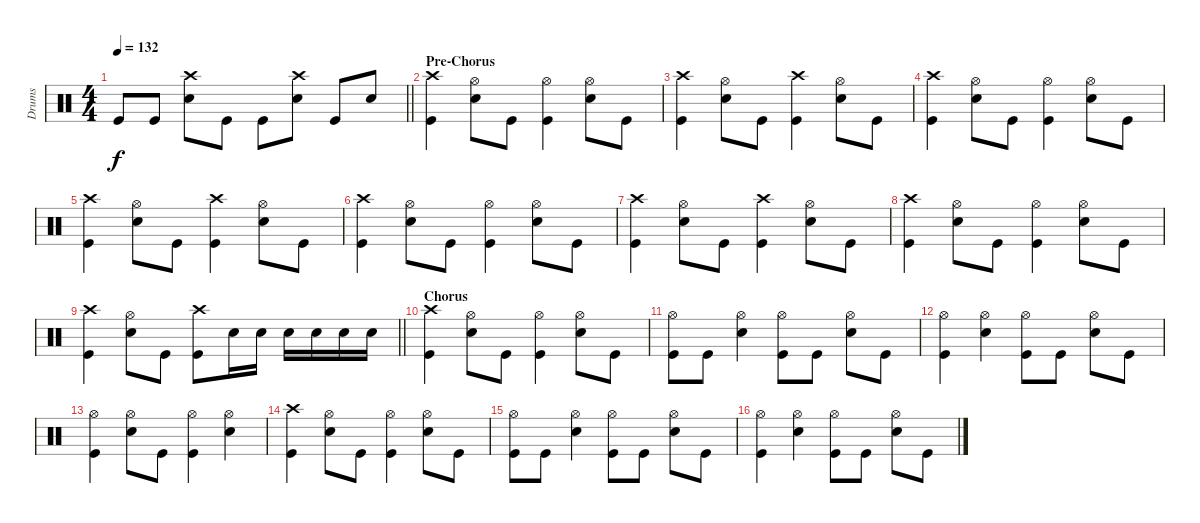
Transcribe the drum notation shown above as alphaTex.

\track ("Drums" "Drums") {instrument percussion}
\staff {score}
\articulation defaults
\ts (4 4)
\tempo 132
\clef neutral
\barLineRight lightlight
\ks c "Kick (hit)".8{dy f} "Kick (hit)".8
("Crash high (hit)" "Electric Snare (hit)").8 "Kick (hit)".8 "Kick (hit)".8 ("Crash high (hit)" "Electric Snare (hit)").8 "Kick (hit)".8 "Electric Snare (hit)".8 |
\section ("" "Pre-Chorus")
("Crash high (hit)" "Kick (hit)").4 ("Hi-Hat (open)" "Electric Snare (hit)").8 "Kick (hit)".8 ("Hi-Hat (open)" "Kick (hit)").4 ("Hi-Hat (open)" "Electric Snare (hit)").8 "Kick (hit)".8 |
("Crash high (hit)" "Kick (hit)").4 ("Hi-Hat (open)" "Electric Snare (hit)").8 "Kick (hit)".8 ("Crash high (hit)" "Kick (hit)").4 ("Hi-Hat (open)" "Electric Snare (hit)").8 "Kick (hit)".8 |
("Crash high (hit)" "Kick (hit)").4 ("Hi-Hat (open)" "Electric Snare (hit)").8 "Kick (hit)".8 ("Hi-Hat (open)" "Kick (hit)").4 ("Hi-Hat (open)" "Electric Snare (hit)").8 "Kick (hit)".8 |
("Crash high (hit)" "Kick (hit)").4 ("Hi-Hat (open)" "Electric Snare (hit)").8 "Kick (hit)".8 ("Crash high (hit)" "Kick (hit)").4 ("Hi-Hat (open)" "Electric Snare (hit)").8 "Kick (hit)".8 |
("Crash high (hit)" "Kick (hit)").4 ("Hi-Hat (open)" "Electric Snare (hit)").8 "Kick (hit)".8 ("Hi-Hat (open)" "Kick (hit)").4 ("Hi-Hat (open)" "Electric Snare (hit)").8 "Kick (hit)".8 |
("Crash high (hit)" "Kick (hit)").4 ("Hi-Hat (open)" "Electric Snare (hit)").8 "Kick (hit)".8 ("Crash high (hit)" "Kick (hit)").4 ("Hi-Hat (open)" "Electric Snare (hit)").8 "Kick (hit)".8 |
("Crash high (hit)" "Kick (hit)").4 ("Hi-Hat (open)" "Electric Snare (hit)").8 "Kick (hit)".8 ("Hi-Hat (open)" "Kick (hit)").4 ("Hi-Hat (open)" "Electric Snare (hit)").8 "Kick (hit)".8 |
\barLineRight lightlight
("Crash high (hit)" "Kick (hit)").4 ("Hi-Hat (open)" "Electric Snare (hit)").8 "Kick (hit)".8 ("Crash high (hit)" "Kick (hit)").8 "Electric Snare (hit)".16 "Electric Snare (hit)".16 "Electric Snare (hit)".16 "Electric Snare (hit)".16 "Electric Snare (hit)".16 "Electric Snare (hit)".16 |
\section ("" "Chorus ")
("Crash high (hit)" "Kick (hit)").4 ("Hi-Hat (open)" "Electric Snare (hit)").8 "Kick (hit)".8 ("Hi-Hat (open)" "Kick (hit)").4 ("Hi-Hat (open)" "Electric Snare (hit)").8 "Kick (hit)".8 |
("Hi-Hat (open)" "Kick (hit)").8 "Kick (hit)".8 ("Hi-Hat (open)" "Electric Snare (hit)").4 ("Hi-Hat (open)" "Kick (hit)").8 "Kick (hit)".8 ("Hi-Hat (open)" "Electric Snare (hit)").8 "Kick (hit)".8 |
("Hi-Hat (open)" "Kick (hit)").4 ("Hi-Hat (open)" "Electric Snare (hit)").4 ("Hi-Hat (open)" "Kick (hit)").8 "Kick (hit)".8 ("Hi-Hat (open)" "Electric Snare (hit)").8 "Kick (hit)".8 |
("Hi-Hat (open)" "Kick (hit)").4 ("Hi-Hat (open)" "Electric Snare (hit)").8 "Kick (hit)".8 ("Hi-Hat (open)" "Kick (hit)").4 ("Hi-Hat (open)" "Electric Snare (hit)").4 |
("Crash high (hit)" "Kick (hit)").4 ("Hi-Hat (open)" "Electric Snare (hit)").8 "Kick (hit)".8 ("Hi-Hat (open)" "Kick (hit)").4 ("Hi-Hat (open)" "Electric Snare (hit)").8 "Kick (hit)".8 |
("Hi-Hat (open)" "Kick (hit)").8 "Kick (hit)".8 ("Hi-Hat (open)" "Electric Snare (hit)").4 ("Hi-Hat (open)" "Kick (hit)").8 "Kick (hit)".8 ("Hi-Hat (open)" "Electric Snare (hit)").8 "Kick (hit)".8 |
("Hi-Hat (open)" "Kick (hit)").4 ("Hi-Hat (open)" "Electric Snare (hit)").4 ("Hi-Hat (open)" "Kick (hit)").8 "Kick (hit)".8 ("Hi-Hat (open)" "Electric Snare (hit)").8 "Kick (hit)".8
